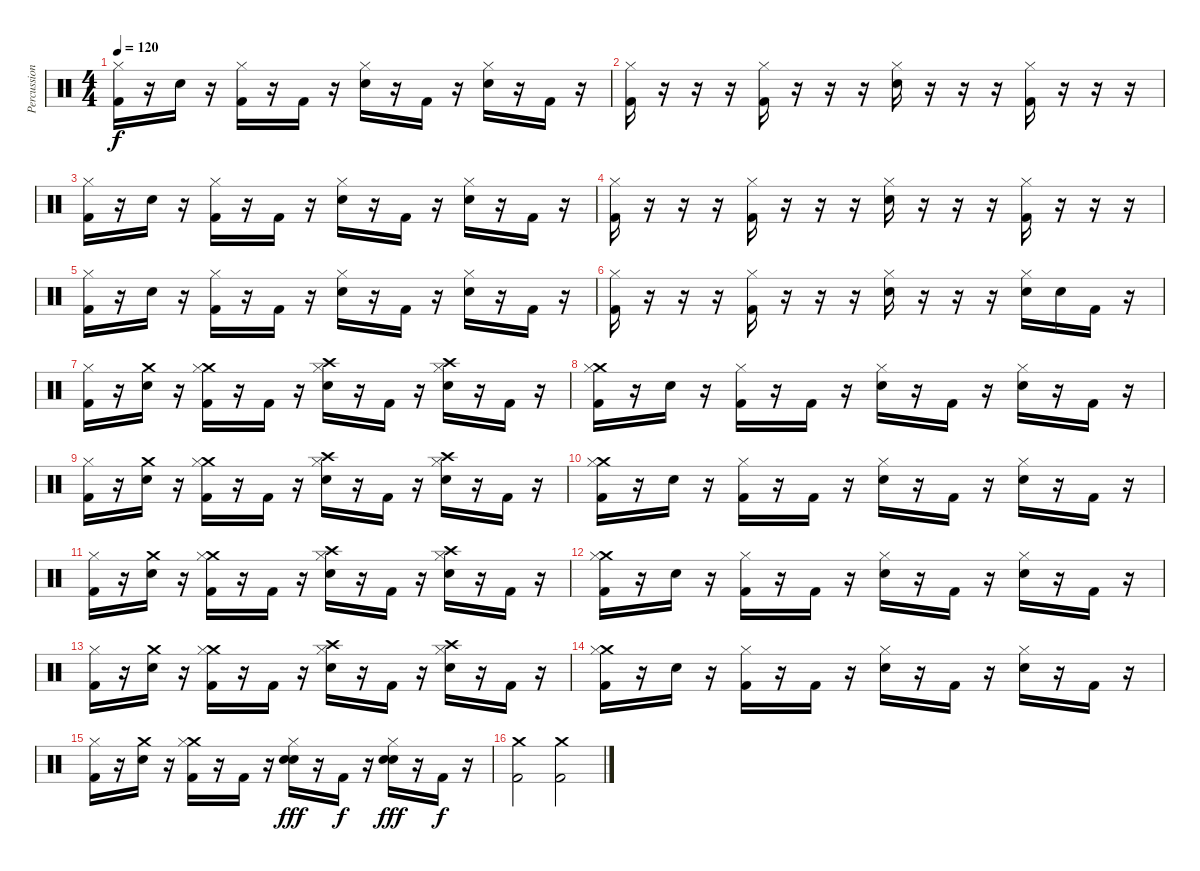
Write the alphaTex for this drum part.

\track ("Percussion" "Percussion") {instrument percussion}
\staff {score}
\articulation defaults
\ts (4 4)
\tempo 120
\clef neutral
\ks c
("Hi-Hat (closed)" "Kick (hit) 2").16{dy f} r.16 "Snare (hit) 2".16 r.16 ("Hi-Hat (closed)" "Kick (hit) 2").16 r.16 "Kick (hit) 2".16 r.16 ("Hi-Hat (closed)" "Snare (hit) 2").16 r.16 "Kick (hit) 2".16 r.16 ("Hi-Hat (closed)" "Snare (hit) 2").16 r.16 "Kick (hit) 2".16 r.16 |
("Hi-Hat (closed)" "Kick (hit) 2").16 r.16 r.16 r.16 ("Hi-Hat (closed)" "Kick (hit) 2").16 r.16 r.16 r.16 ("Hi-Hat (closed)" "Snare (hit) 2").16 r.16 r.16 r.16 ("Hi-Hat (closed)" "Kick (hit) 2").16 r.16 r.16 r.16 |
("Hi-Hat (closed)" "Kick (hit) 2").16 r.16 "Snare (hit) 2".16 r.16 ("Hi-Hat (closed)" "Kick (hit) 2").16 r.16 "Kick (hit) 2".16 r.16 ("Hi-Hat (closed)" "Snare (hit) 2").16 r.16 "Kick (hit) 2".16 r.16 ("Hi-Hat (closed)" "Snare (hit) 2").16 r.16 "Kick (hit) 2".16 r.16 |
("Hi-Hat (closed)" "Kick (hit) 2").16 r.16 r.16 r.16 ("Hi-Hat (closed)" "Kick (hit) 2").16 r.16 r.16 r.16 ("Hi-Hat (closed)" "Snare (hit) 2").16 r.16 r.16 r.16 ("Hi-Hat (closed)" "Kick (hit) 2").16 r.16 r.16 r.16 |
("Hi-Hat (closed)" "Kick (hit) 2").16 r.16 "Snare (hit) 2".16 r.16 ("Hi-Hat (closed)" "Kick (hit) 2").16 r.16 "Kick (hit) 2".16 r.16 ("Hi-Hat (closed)" "Snare (hit) 2").16 r.16 "Kick (hit) 2".16 r.16 ("Hi-Hat (closed)" "Snare (hit) 2").16 r.16 "Kick (hit) 2".16 r.16 |
("Hi-Hat (closed)" "Kick (hit) 2").16 r.16 r.16 r.16 ("Hi-Hat (closed)" "Kick (hit) 2").16 r.16 r.16 r.16 ("Hi-Hat (closed)" "Snare (hit) 2").16 r.16 r.16 r.16 ("Hi-Hat (closed)" "Snare (hit) 2").16 "Snare (hit) 2".16 "Kick (hit) 2".16 r.16 |
("Hi-Hat (closed)" "Kick (hit) 2").16 r.16 ("Crash medium (hit)" "Snare (hit) 2").16 r.16 ("Crash medium (hit)" "Hi-Hat (closed)" "Kick (hit) 2").16 r.16 "Kick (hit) 2".16 r.16 ("Crash high (hit)" "Hi-Hat (closed)" "Snare (hit) 2").16 r.16 "Kick (hit) 2".16 r.16 ("Crash high (hit)" "Hi-Hat (closed)" "Snare (hit) 2").16 r.16 "Kick (hit) 2".16 r.16 |
("Crash medium (hit)" "Hi-Hat (closed)" "Kick (hit) 2").16 r.16 "Snare (hit) 2".16 r.16 ("Hi-Hat (closed)" "Kick (hit) 2").16 r.16 "Kick (hit) 2".16 r.16 ("Hi-Hat (closed)" "Snare (hit) 2").16 r.16 "Kick (hit) 2".16 r.16 ("Hi-Hat (closed)" "Snare (hit) 2").16 r.16 "Kick (hit) 2".16 r.16 |
("Hi-Hat (closed)" "Kick (hit) 2").16 r.16 ("Crash medium (hit)" "Snare (hit) 2").16 r.16 ("Crash medium (hit)" "Hi-Hat (closed)" "Kick (hit) 2").16 r.16 "Kick (hit) 2".16 r.16 ("Crash high (hit)" "Hi-Hat (closed)" "Snare (hit) 2").16 r.16 "Kick (hit) 2".16 r.16 ("Crash high (hit)" "Hi-Hat (closed)" "Snare (hit) 2").16 r.16 "Kick (hit) 2".16 r.16 |
("Crash medium (hit)" "Hi-Hat (closed)" "Kick (hit) 2").16 r.16 "Snare (hit) 2".16 r.16 ("Hi-Hat (closed)" "Kick (hit) 2").16 r.16 "Kick (hit) 2".16 r.16 ("Hi-Hat (closed)" "Snare (hit) 2").16 r.16 "Kick (hit) 2".16 r.16 ("Hi-Hat (closed)" "Snare (hit) 2").16 r.16 "Kick (hit) 2".16 r.16 |
("Hi-Hat (closed)" "Kick (hit) 2").16 r.16 ("Crash medium (hit)" "Snare (hit) 2").16 r.16 ("Crash medium (hit)" "Hi-Hat (closed)" "Kick (hit) 2").16 r.16 "Kick (hit) 2".16 r.16 ("Crash high (hit)" "Hi-Hat (closed)" "Snare (hit) 2").16 r.16 "Kick (hit) 2".16 r.16 ("Crash high (hit)" "Hi-Hat (closed)" "Snare (hit) 2").16 r.16 "Kick (hit) 2".16 r.16 |
("Crash medium (hit)" "Hi-Hat (closed)" "Kick (hit) 2").16 r.16 "Snare (hit) 2".16 r.16 ("Hi-Hat (closed)" "Kick (hit) 2").16 r.16 "Kick (hit) 2".16 r.16 ("Hi-Hat (closed)" "Snare (hit) 2").16 r.16 "Kick (hit) 2".16 r.16 ("Hi-Hat (closed)" "Snare (hit) 2").16 r.16 "Kick (hit) 2".16 r.16 |
("Hi-Hat (closed)" "Kick (hit) 2").16 r.16 ("Crash medium (hit)" "Snare (hit) 2").16 r.16 ("Crash medium (hit)" "Hi-Hat (closed)" "Kick (hit) 2").16 r.16 "Kick (hit) 2".16 r.16 ("Crash high (hit)" "Hi-Hat (closed)" "Snare (hit) 2").16 r.16 "Kick (hit) 2".16 r.16 ("Crash high (hit)" "Hi-Hat (closed)" "Snare (hit) 2").16 r.16 "Kick (hit) 2".16 r.16 |
("Crash medium (hit)" "Hi-Hat (closed)" "Kick (hit) 2").16 r.16 "Snare (hit) 2".16 r.16 ("Hi-Hat (closed)" "Kick (hit) 2").16 r.16 "Kick (hit) 2".16 r.16 ("Hi-Hat (closed)" "Snare (hit) 2").16 r.16 "Kick (hit) 2".16 r.16 ("Hi-Hat (closed)" "Snare (hit) 2").16 r.16 "Kick (hit) 2".16 r.16 |
("Hi-Hat (closed)" "Kick (hit) 2").16 r.16 ("Crash medium (hit)" "Snare (hit) 2").16 r.16 ("Crash medium (hit)" "Hi-Hat (closed)" "Kick (hit) 2").16 r.16 "Kick (hit) 2".16 r.16 ("Hi-Hat (closed)" "Snare (hit) 2" "Snare (hit) 2").16{dy fff} r.16 "Kick (hit) 2".16{dy f} r.16 ("Hi-Hat (closed)" "Snare (hit) 2" "Snare (hit) 2").16{dy fff} r.16 "Kick (hit) 2".16{dy f} r.16 |
("Crash medium (hit)" "Kick (hit) 2").2 ("Crash medium (hit)" "Kick (hit) 2").2
